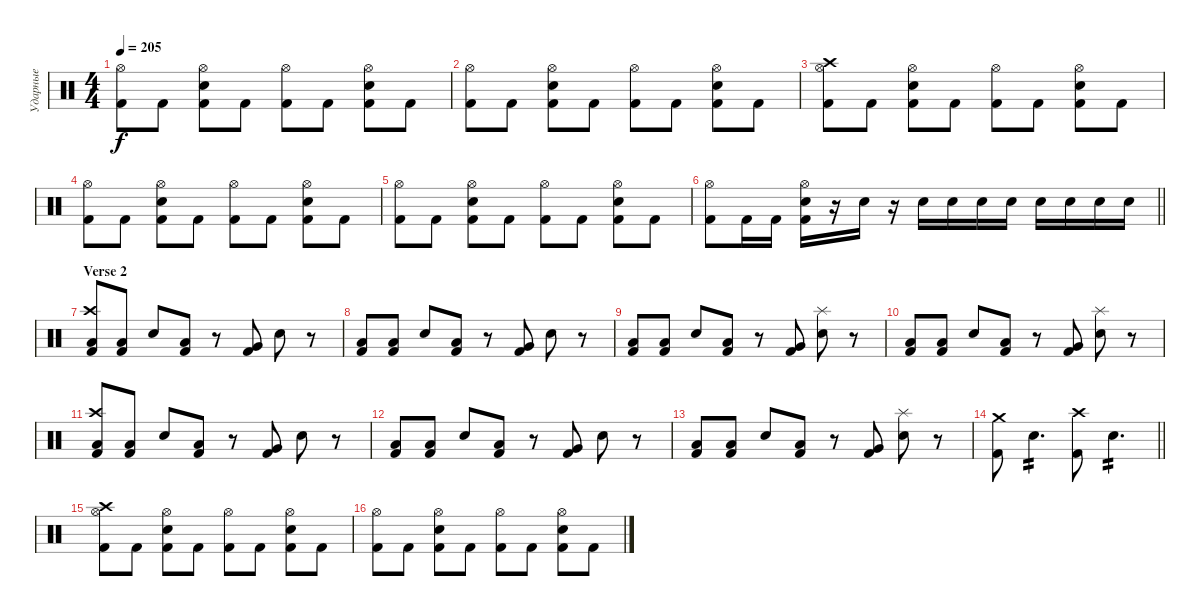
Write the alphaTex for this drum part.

\track ("Ударные" "Ударные") {instrument percussion}
\staff {score}
\articulation defaults
\ts (4 4)
\tempo 205
\clef neutral
\ks c
("Hi-Hat (open)" "Kick (hit) 2").8{dy f} "Kick (hit) 2".8 ("Hi-Hat (open)" "Snare (hit) 2" "Kick (hit) 2").8 "Kick (hit) 2".8 ("Hi-Hat (open)" "Kick (hit) 2").8 "Kick (hit) 2".8 ("Hi-Hat (open)" "Snare (hit) 2" "Kick (hit) 2").8 "Kick (hit) 2".8 |
("Hi-Hat (open)" "Kick (hit) 2").8 "Kick (hit) 2".8 ("Hi-Hat (open)" "Snare (hit) 2" "Kick (hit) 2").8 "Kick (hit) 2".8 ("Hi-Hat (open)" "Kick (hit) 2").8 "Kick (hit) 2".8 ("Hi-Hat (open)" "Snare (hit) 2" "Kick (hit) 2").8 "Kick (hit) 2".8 |
("Hi-Hat (open)" "Crash high (hit)" "Kick (hit) 2").8 "Kick (hit) 2".8 ("Hi-Hat (open)" "Snare (hit) 2" "Kick (hit) 2").8 "Kick (hit) 2".8 ("Hi-Hat (open)" "Kick (hit) 2").8 "Kick (hit) 2".8 ("Hi-Hat (open)" "Snare (hit) 2" "Kick (hit) 2").8 "Kick (hit) 2".8 |
("Hi-Hat (open)" "Kick (hit) 2").8 "Kick (hit) 2".8 ("Hi-Hat (open)" "Snare (hit) 2" "Kick (hit) 2").8 "Kick (hit) 2".8 ("Hi-Hat (open)" "Kick (hit) 2").8 "Kick (hit) 2".8 ("Hi-Hat (open)" "Snare (hit) 2" "Kick (hit) 2").8 "Kick (hit) 2".8 |
("Hi-Hat (open)" "Kick (hit) 2").8 "Kick (hit) 2".8 ("Hi-Hat (open)" "Snare (hit) 2" "Kick (hit) 2").8 "Kick (hit) 2".8 ("Hi-Hat (open)" "Kick (hit) 2").8 "Kick (hit) 2".8 ("Hi-Hat (open)" "Snare (hit) 2" "Kick (hit) 2").8 "Kick (hit) 2".8 |
\barLineRight lightlight
("Hi-Hat (open)" "Kick (hit) 2").8 "Kick (hit) 2".16 "Kick (hit) 2".16 ("Hi-Hat (open)" "Snare (hit) 2" "Kick (hit) 2").16 r.16 "Snare (hit) 2".16 r.16 "Snare (hit) 2".16 "Snare (hit) 2".16 "Snare (hit) 2".16 "Snare (hit) 2".16 "Snare (hit) 2".16 "Snare (hit) 2".16 "Snare (hit) 2".16 "Snare (hit) 2".16 |
\section ("" "Verse 2")
("Low Tom (hit)" "Crash high (hit)" "Kick (hit) 2").8 ("Low Tom (hit)" "Kick (hit) 2").8 "Snare (hit) 2".8 ("Low Tom (hit)" "Kick (hit) 2").8 r.8 ("Very Low Tom (hit)" "Kick (hit) 2").8 "Snare (hit) 2".8 r.8 |
("Low Tom (hit)" "Kick (hit) 2").8 ("Low Tom (hit)" "Kick (hit) 2").8 "Snare (hit) 2".8 ("Low Tom (hit)" "Kick (hit) 2").8 r.8 ("Very Low Tom (hit)" "Kick (hit) 2").8 "Snare (hit) 2".8 r.8 |
("Low Tom (hit)" "Kick (hit) 2").8 ("Low Tom (hit)" "Kick (hit) 2").8 "Snare (hit) 2".8 ("Low Tom (hit)" "Kick (hit) 2").8 r.8 ("Very Low Tom (hit)" "Kick (hit) 2").8 ("Splash (hit)" "Snare (hit) 2").8 r.8 |
("Low Tom (hit)" "Kick (hit) 2").8 ("Low Tom (hit)" "Kick (hit) 2").8 "Snare (hit) 2".8 ("Low Tom (hit)" "Kick (hit) 2").8 r.8 ("Very Low Tom (hit)" "Kick (hit) 2").8 ("Splash (hit)" "Snare (hit) 2").8 r.8 |
("Low Tom (hit)" "Crash high (hit)" "Kick (hit) 2").8 ("Low Tom (hit)" "Kick (hit) 2").8 "Snare (hit) 2".8 ("Low Tom (hit)" "Kick (hit) 2").8 r.8 ("Very Low Tom (hit)" "Kick (hit) 2").8 "Snare (hit) 2".8 r.8 |
("Low Tom (hit)" "Kick (hit) 2").8 ("Low Tom (hit)" "Kick (hit) 2").8 "Snare (hit) 2".8 ("Low Tom (hit)" "Kick (hit) 2").8 r.8 ("Very Low Tom (hit)" "Kick (hit) 2").8 "Snare (hit) 2".8 r.8 |
("Low Tom (hit)" "Kick (hit) 2").8 ("Low Tom (hit)" "Kick (hit) 2").8 "Snare (hit) 2".8 ("Low Tom (hit)" "Kick (hit) 2").8 r.8 ("Very Low Tom (hit)" "Kick (hit) 2").8 ("Splash (hit)" "Snare (hit) 2").8 r.8 |
\barLineRight lightlight
("Crash medium (hit)" "Kick (hit) 2").8 "Snare (hit) 2".4{d tp 2} ("Crash high (hit)" "Kick (hit) 2").8 "Snare (hit) 2".4{d tp 2} |
("Hi-Hat (open)" "Crash high (hit)" "Kick (hit) 2").8 "Kick (hit) 2".8 ("Hi-Hat (open)" "Snare (hit) 2" "Kick (hit) 2").8 "Kick (hit) 2".8 ("Hi-Hat (open)" "Kick (hit) 2").8 "Kick (hit) 2".8 ("Hi-Hat (open)" "Snare (hit) 2" "Kick (hit) 2").8 "Kick (hit) 2".8 |
("Hi-Hat (open)" "Kick (hit) 2").8 "Kick (hit) 2".8 ("Hi-Hat (open)" "Snare (hit) 2" "Kick (hit) 2").8 "Kick (hit) 2".8 ("Hi-Hat (open)" "Kick (hit) 2").8 "Kick (hit) 2".8 ("Hi-Hat (open)" "Snare (hit) 2" "Kick (hit) 2").8 "Kick (hit) 2".8
